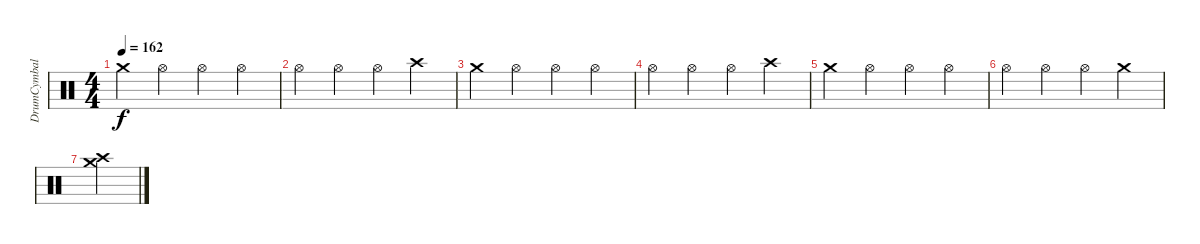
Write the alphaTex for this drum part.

\track ("DrumCymbal" "DrumCymbal") {instrument percussion}
\staff {score}
\articulation defaults
\ts (4 4)
\tempo 162
\clef neutral
\ks c "Crash medium (hit)".4{dy f} "Hi-Hat (open)".4 "Hi-Hat (open)".4 "Hi-Hat (open)".4
|
"Hi-Hat (open)".4 "Hi-Hat (open)".4 "Hi-Hat (open)".4 "Crash high (hit)".4 |
"Crash medium (hit)".4 "Hi-Hat (open)".4 "Hi-Hat (open)".4 "Hi-Hat (open)".4 |
"Hi-Hat (open)".4 "Hi-Hat (open)".4 "Hi-Hat (open)".4 "Crash high (hit)".4 |
"Crash medium (hit)".4 "Hi-Hat (open)".4 "Hi-Hat (open)".4 "Hi-Hat (open)".4 |
"Hi-Hat (open)".4 "Hi-Hat (open)".4 "Hi-Hat (open)".4 "Crash medium (hit)".4 |
("Crash medium (hit)" "Crash high (hit)").4
